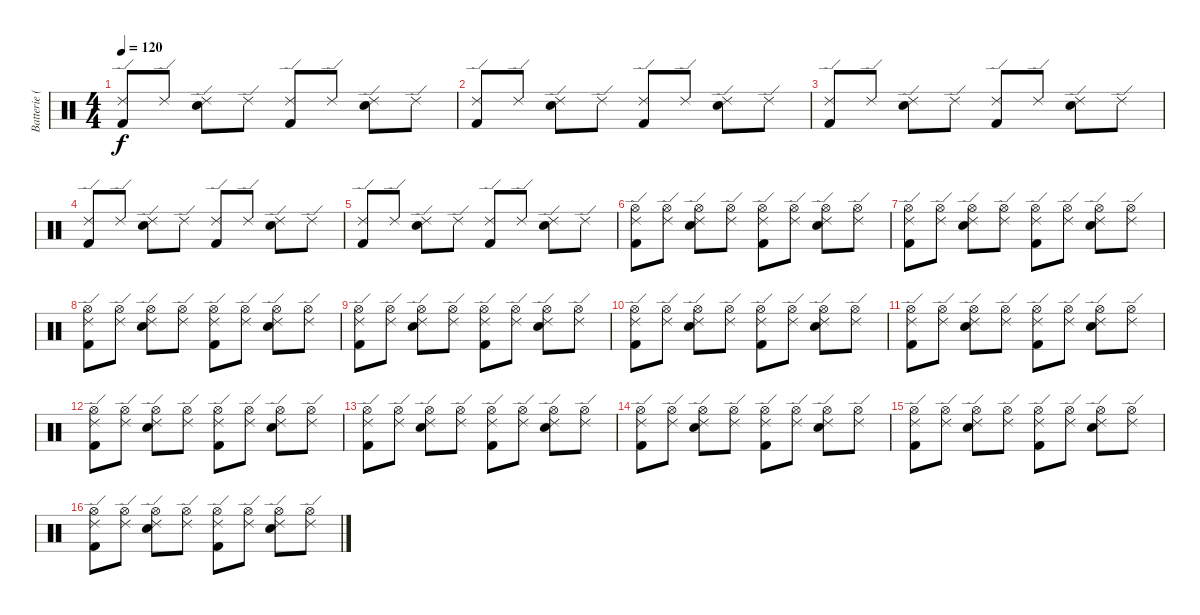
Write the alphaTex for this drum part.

\track ("Batterie (David Lovering)" "Batterie (") {instrument percussion}
\staff {score}
\articulation defaults
\ts (4 4)
\tempo 120
\clef neutral
\ks c
("Ride (edge) 2" "Kick (hit) 2").8{dy f} "Ride (edge) 2".8 ("Ride (edge) 2" "Electric Snare (hit)").8 "Ride (edge) 2".8 ("Ride (edge) 2" "Kick (hit) 2").8 "Ride (edge) 2".8 ("Ride (edge) 2" "Electric Snare (hit)").8 "Ride (edge) 2".8 |
("Ride (edge) 2" "Kick (hit) 2").8 "Ride (edge) 2".8 ("Ride (edge) 2" "Electric Snare (hit)").8 "Ride (edge) 2".8 ("Ride (edge) 2" "Kick (hit) 2").8 "Ride (edge) 2".8 ("Ride (edge) 2" "Electric Snare (hit)").8 "Ride (edge) 2".8 |
("Ride (edge) 2" "Kick (hit) 2").8 "Ride (edge) 2".8 ("Ride (edge) 2" "Electric Snare (hit)").8 "Ride (edge) 2".8 ("Ride (edge) 2" "Kick (hit) 2").8 "Ride (edge) 2".8 ("Ride (edge) 2" "Electric Snare (hit)").8 "Ride (edge) 2".8 |
("Ride (edge) 2" "Kick (hit) 2").8 "Ride (edge) 2".8 ("Ride (edge) 2" "Electric Snare (hit)").8 "Ride (edge) 2".8 ("Ride (edge) 2" "Kick (hit) 2").8 "Ride (edge) 2".8 ("Ride (edge) 2" "Electric Snare (hit)").8 "Ride (edge) 2".8 |
("Ride (edge) 2" "Kick (hit) 2").8 "Ride (edge) 2".8 ("Ride (edge) 2" "Electric Snare (hit)").8 "Ride (edge) 2".8 ("Ride (edge) 2" "Kick (hit) 2").8 "Ride (edge) 2".8 ("Ride (edge) 2" "Electric Snare (hit)").8 "Ride (edge) 2".8 |
("Ride (edge) 2" "Hi-Hat (open)" "Kick (hit) 2").8 ("Ride (edge) 2" "Hi-Hat (open)").8 ("Ride (edge) 2" "Hi-Hat (open)" "Electric Snare (hit)").8 ("Ride (edge) 2" "Hi-Hat (open)").8 ("Ride (edge) 2" "Hi-Hat (open)" "Kick (hit) 2").8 ("Ride (edge) 2" "Hi-Hat (open)").8 ("Ride (edge) 2" "Hi-Hat (open)" "Electric Snare (hit)").8 ("Ride (edge) 2" "Hi-Hat (open)").8 |
("Ride (edge) 2" "Hi-Hat (open)" "Kick (hit) 2").8 ("Ride (edge) 2" "Hi-Hat (open)").8 ("Ride (edge) 2" "Hi-Hat (open)" "Electric Snare (hit)").8 ("Ride (edge) 2" "Hi-Hat (open)").8 ("Ride (edge) 2" "Hi-Hat (open)" "Kick (hit) 2").8 ("Ride (edge) 2" "Hi-Hat (open)").8 ("Ride (edge) 2" "Hi-Hat (open)" "Electric Snare (hit)").8 ("Ride (edge) 2" "Hi-Hat (open)").8 |
("Ride (edge) 2" "Hi-Hat (open)" "Kick (hit) 2").8 ("Ride (edge) 2" "Hi-Hat (open)").8 ("Ride (edge) 2" "Hi-Hat (open)" "Electric Snare (hit)").8 ("Ride (edge) 2" "Hi-Hat (open)").8 ("Ride (edge) 2" "Hi-Hat (open)" "Kick (hit) 2").8 ("Ride (edge) 2" "Hi-Hat (open)").8 ("Ride (edge) 2" "Hi-Hat (open)" "Electric Snare (hit)").8 ("Ride (edge) 2" "Hi-Hat (open)").8 |
("Ride (edge) 2" "Hi-Hat (open)" "Kick (hit) 2").8 ("Ride (edge) 2" "Hi-Hat (open)").8 ("Ride (edge) 2" "Hi-Hat (open)" "Electric Snare (hit)").8 ("Ride (edge) 2" "Hi-Hat (open)").8 ("Ride (edge) 2" "Hi-Hat (open)" "Kick (hit) 2").8 ("Ride (edge) 2" "Hi-Hat (open)").8 ("Ride (edge) 2" "Hi-Hat (open)" "Electric Snare (hit)").8 ("Ride (edge) 2" "Hi-Hat (open)").8 |
("Ride (edge) 2" "Hi-Hat (open)" "Kick (hit) 2").8 ("Ride (edge) 2" "Hi-Hat (open)").8 ("Ride (edge) 2" "Hi-Hat (open)" "Electric Snare (hit)").8 ("Ride (edge) 2" "Hi-Hat (open)").8 ("Ride (edge) 2" "Hi-Hat (open)" "Kick (hit) 2").8 ("Ride (edge) 2" "Hi-Hat (open)").8 ("Ride (edge) 2" "Hi-Hat (open)" "Electric Snare (hit)").8 ("Ride (edge) 2" "Hi-Hat (open)").8 |
("Ride (edge) 2" "Hi-Hat (open)" "Kick (hit) 2").8 ("Ride (edge) 2" "Hi-Hat (open)").8 ("Ride (edge) 2" "Hi-Hat (open)" "Electric Snare (hit)").8 ("Ride (edge) 2" "Hi-Hat (open)").8 ("Ride (edge) 2" "Hi-Hat (open)" "Kick (hit) 2").8 ("Ride (edge) 2" "Hi-Hat (open)").8 ("Ride (edge) 2" "Hi-Hat (open)" "Electric Snare (hit)").8 ("Ride (edge) 2" "Hi-Hat (open)").8 |
("Ride (edge) 2" "Hi-Hat (open)" "Kick (hit) 2").8 ("Ride (edge) 2" "Hi-Hat (open)").8 ("Ride (edge) 2" "Hi-Hat (open)" "Electric Snare (hit)").8 ("Ride (edge) 2" "Hi-Hat (open)").8 ("Ride (edge) 2" "Hi-Hat (open)" "Kick (hit) 2").8 ("Ride (edge) 2" "Hi-Hat (open)").8 ("Ride (edge) 2" "Hi-Hat (open)" "Electric Snare (hit)").8 ("Ride (edge) 2" "Hi-Hat (open)").8 |
("Ride (edge) 2" "Hi-Hat (open)" "Kick (hit) 2").8 ("Ride (edge) 2" "Hi-Hat (open)").8 ("Ride (edge) 2" "Hi-Hat (open)" "Electric Snare (hit)").8 ("Ride (edge) 2" "Hi-Hat (open)").8 ("Ride (edge) 2" "Hi-Hat (open)" "Kick (hit) 2").8 ("Ride (edge) 2" "Hi-Hat (open)").8 ("Ride (edge) 2" "Hi-Hat (open)" "Electric Snare (hit)").8 ("Ride (edge) 2" "Hi-Hat (open)").8 |
("Ride (edge) 2" "Hi-Hat (open)" "Kick (hit) 2").8 ("Ride (edge) 2" "Hi-Hat (open)").8 ("Ride (edge) 2" "Hi-Hat (open)" "Electric Snare (hit)").8 ("Ride (edge) 2" "Hi-Hat (open)").8 ("Ride (edge) 2" "Hi-Hat (open)" "Kick (hit) 2").8 ("Ride (edge) 2" "Hi-Hat (open)").8 ("Ride (edge) 2" "Hi-Hat (open)" "Electric Snare (hit)").8 ("Ride (edge) 2" "Hi-Hat (open)").8 |
("Ride (edge) 2" "Hi-Hat (open)" "Kick (hit) 2").8 ("Ride (edge) 2" "Hi-Hat (open)").8 ("Ride (edge) 2" "Hi-Hat (open)" "Electric Snare (hit)").8 ("Ride (edge) 2" "Hi-Hat (open)").8 ("Ride (edge) 2" "Hi-Hat (open)" "Kick (hit) 2").8 ("Ride (edge) 2" "Hi-Hat (open)").8 ("Ride (edge) 2" "Hi-Hat (open)" "Electric Snare (hit)").8 ("Ride (edge) 2" "Hi-Hat (open)").8 |
("Ride (edge) 2" "Hi-Hat (open)" "Kick (hit) 2").8 ("Ride (edge) 2" "Hi-Hat (open)").8 ("Ride (edge) 2" "Hi-Hat (open)" "Electric Snare (hit)").8 ("Ride (edge) 2" "Hi-Hat (open)").8 ("Ride (edge) 2" "Hi-Hat (open)" "Kick (hit) 2").8 ("Ride (edge) 2" "Hi-Hat (open)").8 ("Ride (edge) 2" "Hi-Hat (open)" "Electric Snare (hit)").8 ("Ride (edge) 2" "Hi-Hat (open)").8
